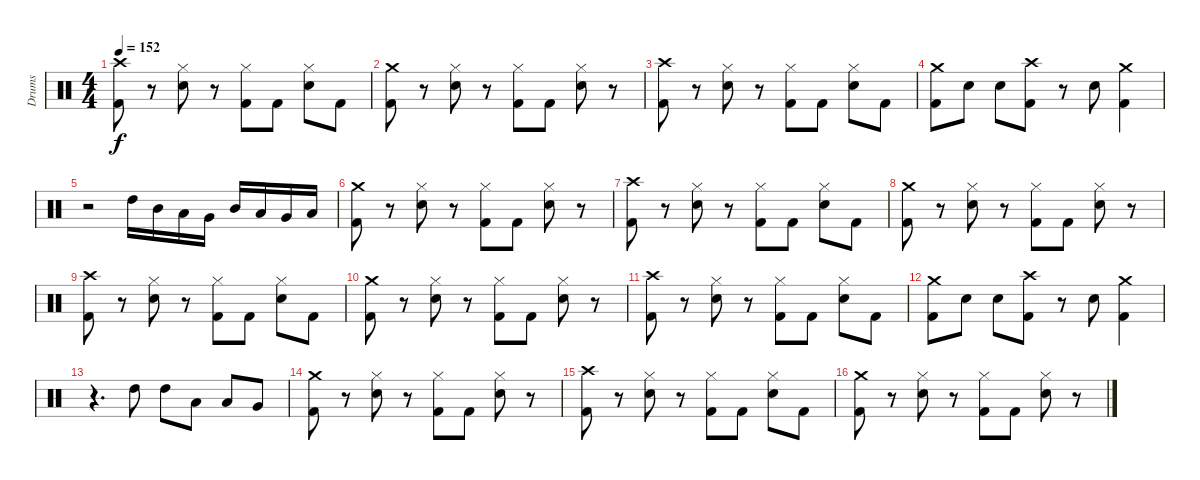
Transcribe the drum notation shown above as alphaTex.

\track ("Drums" "Drums") {instrument percussion}
\staff {score}
\articulation defaults
\ts (4 4)
\tempo 152
\clef neutral
\ks c
("Crash high (hit)" "Kick (hit) 2").8{dy f} r.8 ("Hi-Hat (closed)" "Electric Snare (hit)").8 r.8 ("Hi-Hat (closed)" "Kick (hit) 2").8 "Kick (hit) 2".8 ("Hi-Hat (closed)" "Electric Snare (hit)").8 "Kick (hit) 2".8 |
("Crash medium (hit)" "Kick (hit) 2").8 r.8 ("Hi-Hat (closed)" "Electric Snare (hit)").8 r.8 ("Hi-Hat (closed)" "Kick (hit) 2").8 "Kick (hit) 2".8 ("Hi-Hat (closed)" "Electric Snare (hit)").8 r.8 |
("Crash high (hit)" "Kick (hit) 2").8 r.8 ("Hi-Hat (closed)" "Electric Snare (hit)").8 r.8 ("Hi-Hat (closed)" "Kick (hit) 2").8 "Kick (hit) 2".8 ("Hi-Hat (closed)" "Electric Snare (hit)").8 "Kick (hit) 2".8 |
("Crash medium (hit)" "Kick (hit) 2").8 "Electric Snare (hit)".8 "Electric Snare (hit)".8 ("Crash high (hit)" "Kick (hit) 2").8 r.8 "Electric Snare (hit)".8 ("Crash medium (hit)" "Kick (hit) 2").4 |
r.2 "High Tom (hit)".16 "Mid Tom (hit)".16 "Low Tom (hit)".16 "Very Low Tom (hit)".16 "Mid Tom (hit)".16 "Low Tom (hit)".16 "Very Low Tom (hit)".16 "Low Floor Tom (hit)".16 |
("Crash medium (hit)" "Kick (hit) 2").8 r.8 ("Hi-Hat (closed)" "Electric Snare (hit)").8 r.8 ("Hi-Hat (closed)" "Kick (hit) 2").8 "Kick (hit) 2".8 ("Hi-Hat (closed)" "Electric Snare (hit)").8 r.8 |
("Crash high (hit)" "Kick (hit) 2").8 r.8 ("Hi-Hat (closed)" "Electric Snare (hit)").8 r.8 ("Hi-Hat (closed)" "Kick (hit) 2").8 "Kick (hit) 2".8 ("Hi-Hat (closed)" "Electric Snare (hit)").8 "Kick (hit) 2".8 |
("Crash medium (hit)" "Kick (hit) 2").8 r.8 ("Hi-Hat (closed)" "Electric Snare (hit)").8 r.8 ("Hi-Hat (closed)" "Kick (hit) 2").8 "Kick (hit) 2".8 ("Hi-Hat (closed)" "Electric Snare (hit)").8 r.8 |
("Crash high (hit)" "Kick (hit) 2").8 r.8 ("Hi-Hat (closed)" "Electric Snare (hit)").8 r.8 ("Hi-Hat (closed)" "Kick (hit) 2").8 "Kick (hit) 2".8 ("Hi-Hat (closed)" "Electric Snare (hit)").8 "Kick (hit) 2".8 |
("Crash medium (hit)" "Kick (hit) 2").8 r.8 ("Hi-Hat (closed)" "Electric Snare (hit)").8 r.8 ("Hi-Hat (closed)" "Kick (hit) 2").8 "Kick (hit) 2".8 ("Hi-Hat (closed)" "Electric Snare (hit)").8 r.8 |
("Crash high (hit)" "Kick (hit) 2").8 r.8 ("Hi-Hat (closed)" "Electric Snare (hit)").8 r.8 ("Hi-Hat (closed)" "Kick (hit) 2").8 "Kick (hit) 2".8 ("Hi-Hat (closed)" "Electric Snare (hit)").8 "Kick (hit) 2".8 |
("Crash medium (hit)" "Kick (hit) 2").8 "Electric Snare (hit)".8 "Electric Snare (hit)".8 ("Crash high (hit)" "Kick (hit) 2").8 r.8 "Electric Snare (hit)".8 ("Crash medium (hit)" "Kick (hit) 2").4 |
r.4{d} "High Tom (hit)".8 "High Tom (hit)".8 "Low Tom (hit)".8 "Low Tom (hit)".8 "Very Low Tom (hit)".8 |
("Crash medium (hit)" "Kick (hit) 2").8 r.8 ("Hi-Hat (closed)" "Electric Snare (hit)").8 r.8 ("Hi-Hat (closed)" "Kick (hit) 2").8 "Kick (hit) 2".8 ("Hi-Hat (closed)" "Electric Snare (hit)").8 r.8 |
("Crash high (hit)" "Kick (hit) 2").8 r.8 ("Hi-Hat (closed)" "Electric Snare (hit)").8 r.8 ("Hi-Hat (closed)" "Kick (hit) 2").8 "Kick (hit) 2".8 ("Hi-Hat (closed)" "Electric Snare (hit)").8 "Kick (hit) 2".8 |
("Crash medium (hit)" "Kick (hit) 2").8 r.8 ("Hi-Hat (closed)" "Electric Snare (hit)").8 r.8 ("Hi-Hat (closed)" "Kick (hit) 2").8 "Kick (hit) 2".8 ("Hi-Hat (closed)" "Electric Snare (hit)").8 r.8
